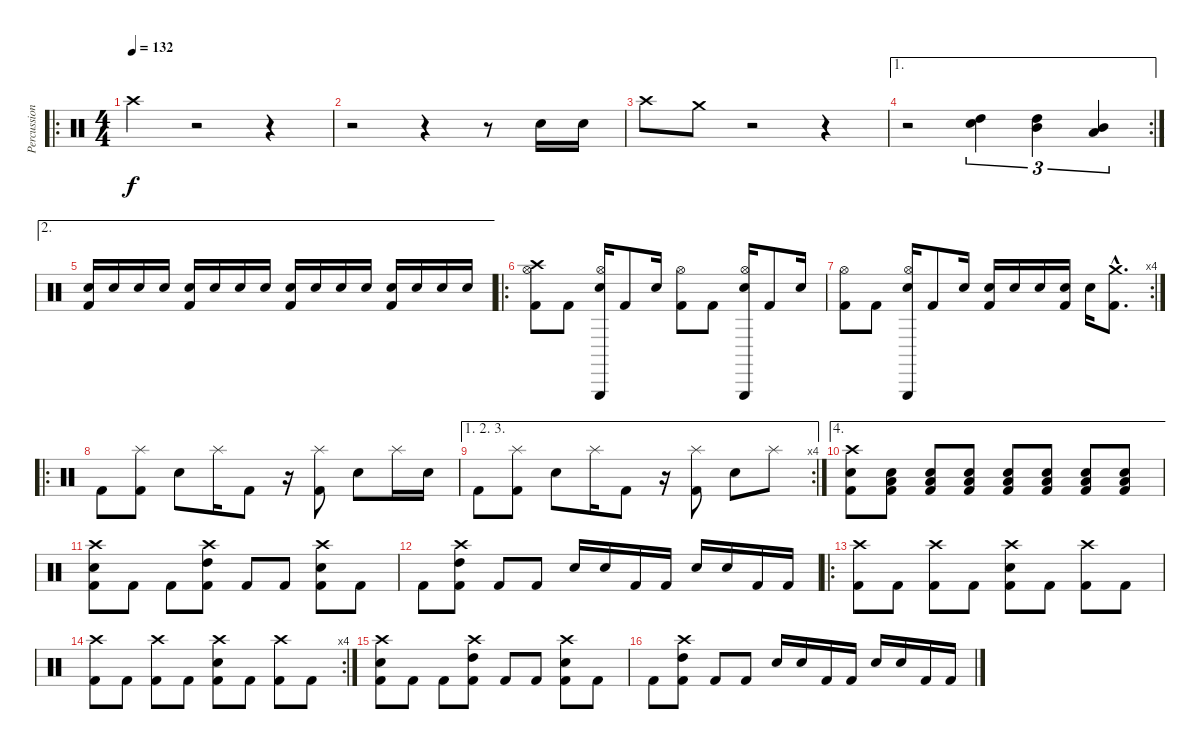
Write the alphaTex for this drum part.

\track ("Percussion" "Percussion") {instrument percussion}
\staff {score}
\articulation defaults
\ro
\ts (4 4)
\tempo 132
\clef neutral
\ks c "Crash high (hit)".4{dy f}
r.2 r.4 |
r.2 r.4 r.8 "Electric Snare (hit)".16 "Electric Snare (hit)".16 |
"Crash high (hit)".8 "Crash medium (hit)".8 r.2 r.4 |
\ae 1
\rc 2
r.2 ("Electric Snare (hit)" "High Tom (hit)").4{tu (3 2)} ("High Tom (hit)" "Mid Tom (hit)").4{tu (3 2)} ("Mid Tom (hit)" "Low Floor Tom (hit)").4{tu (3 2)} |
\ae 2
("Electric Snare (hit)" "Kick (hit) 2").16 "Electric Snare (hit)".16 "Electric Snare (hit)".16 "Electric Snare (hit)".16 ("Electric Snare (hit)" "Kick (hit) 2").16 "Electric Snare (hit)".16 "Electric Snare (hit)".16 "Electric Snare (hit)".16 ("Electric Snare (hit)" "Kick (hit) 2").16 "Electric Snare (hit)".16 "Electric Snare (hit)".16 "Electric Snare (hit)".16 ("Electric Snare (hit)" "Kick (hit) 2").16 "Electric Snare (hit)".16 "Electric Snare (hit)".16 "Electric Snare (hit)".16 |
\ro
("Crash high (hit)" "Hi-Hat (open)" "Kick (hit) 2").8 "Kick (hit) 2".8 ("Triangle (hit)" "Electric Snare (hit)" "Hi-Hat (open)").16 "Kick (hit) 2".8 "Electric Snare (hit)".16 ("Hi-Hat (open)" "Kick (hit) 2").8 "Kick (hit) 2".8 ("Triangle (hit)" "Electric Snare (hit)" "Hi-Hat (open)").16 "Kick (hit) 2".8 "Electric Snare (hit)".16 |
\rc 4
("Hi-Hat (open)" "Kick (hit) 2").8 "Kick (hit) 2".8 ("Triangle (hit)" "Electric Snare (hit)" "Hi-Hat (open)").16 "Kick (hit) 2".8 "Electric Snare (hit)".16 ("Electric Snare (hit)" "Kick (hit) 2").16 "Electric Snare (hit)".16 "Electric Snare (hit)".16 ("Electric Snare (hit)" "Kick (hit) 2").16 "Electric Snare (hit)".16 ("Crash medium (hit)"{hac} "Kick (hit) 2"{hac}).8{d} |
\ro "Kick (hit) 2".8
("Splash (hit)" "Kick (hit) 2").8 "Electric Snare (hit)".8 "Splash (hit)".16 "Kick (hit) 2".8 r.16 ("Splash (hit)" "Kick (hit) 2").8 "Electric Snare (hit)".8 "Splash (hit)".16 "Electric Snare (hit)".16 |
\ae (1 2 3)
\rc 4 "Kick (hit) 2".8
("Splash (hit)" "Kick (hit) 2").8 "Electric Snare (hit)".8 "Splash (hit)".16 "Kick (hit) 2".8 r.16 ("Splash (hit)" "Kick (hit) 2").8 "Electric Snare (hit)".8 "Splash (hit)".8 |
\ae 4
("Crash high (hit)" "Electric Snare (hit)" "Kick (hit) 2").8 ("Electric Snare (hit)" "Low Floor Tom (hit)" "Kick (hit) 2").8 ("Electric Snare (hit)" "Low Floor Tom (hit)" "Kick (hit) 2").8 ("Electric Snare (hit)" "Low Floor Tom (hit)" "Kick (hit) 2").8 ("Electric Snare (hit)" "Low Floor Tom (hit)" "Kick (hit) 2").8 ("Electric Snare (hit)" "Low Floor Tom (hit)" "Kick (hit) 2").8 ("Electric Snare (hit)" "Low Floor Tom (hit)" "Kick (hit) 2").8 ("Electric Snare (hit)" "Low Floor Tom (hit)" "Kick (hit) 2").8 |
("Crash high (hit)" "Electric Snare (hit)" "Kick (hit) 2").8 "Kick (hit) 2".8 "Kick (hit) 2".8 ("Crash high (hit)" "High Tom (hit)" "Kick (hit) 2").8 "Kick (hit) 2".8 "Kick (hit) 2".8 ("Crash high (hit)" "Electric Snare (hit)" "Kick (hit) 2").8 "Kick (hit) 2".8 |
"Kick (hit) 2".8 ("Crash high (hit)" "High Tom (hit)" "Kick (hit) 2").8 "Kick (hit) 2".8 "Kick (hit) 2".8 "Electric Snare (hit)".16 "Electric Snare (hit)".16 "Kick (hit) 2".16 "Kick (hit) 2".16 "Electric Snare (hit)".16 "Electric Snare (hit)".16 "Kick (hit) 2".16 "Kick (hit) 2".16 |
\ro
("Crash high (hit)" "Kick (hit) 2").8 "Kick (hit) 2".8 ("Crash high (hit)" "Kick (hit) 2").8 "Kick (hit) 2".8 ("Crash high (hit)" "Electric Snare (hit)" "Kick (hit) 2").8 "Kick (hit) 2".8 ("Crash high (hit)" "Kick (hit) 2").8 "Kick (hit) 2".8 |
\rc 4
("Crash high (hit)" "Kick (hit) 2").8 "Kick (hit) 2".8 ("Crash high (hit)" "Kick (hit) 2").8 "Kick (hit) 2".8 ("Crash high (hit)" "Electric Snare (hit)" "Kick (hit) 2").8 "Kick (hit) 2".8 ("Crash high (hit)" "Kick (hit) 2").8 "Kick (hit) 2".8 |
("Crash high (hit)" "Electric Snare (hit)" "Kick (hit) 2").8 "Kick (hit) 2".8 "Kick (hit) 2".8 ("Crash high (hit)" "High Tom (hit)" "Kick (hit) 2").8 "Kick (hit) 2".8 "Kick (hit) 2".8 ("Crash high (hit)" "Electric Snare (hit)" "Kick (hit) 2").8 "Kick (hit) 2".8 |
"Kick (hit) 2".8 ("Crash high (hit)" "High Tom (hit)" "Kick (hit) 2").8 "Kick (hit) 2".8 "Kick (hit) 2".8 "Electric Snare (hit)".16 "Electric Snare (hit)".16 "Kick (hit) 2".16 "Kick (hit) 2".16 "Electric Snare (hit)".16 "Electric Snare (hit)".16 "Kick (hit) 2".16 "Kick (hit) 2".16
